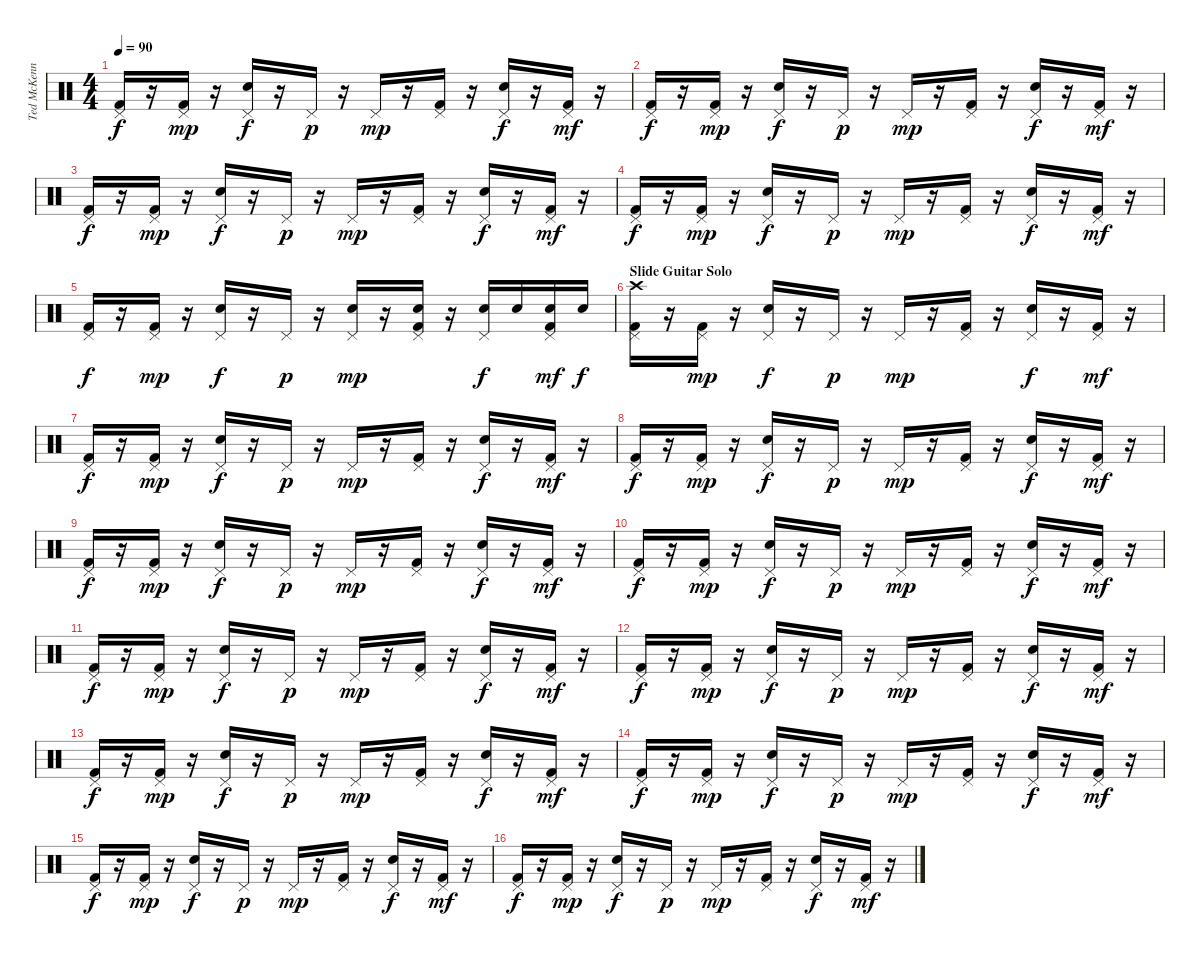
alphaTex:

\track ("Ted McKenna" "Ted McKenn") {instrument percussion}
\staff {score}
\articulation defaults
\ts (4 4)
\tempo 90
\clef neutral
\ks c
("Pedal Hi-Hat (hit)" "Kick (hit) 2").16{dy f} r.16 ("Pedal Hi-Hat (hit)" "Kick (hit) 2").16{dy mp} r.16 ("Pedal Hi-Hat (hit)" "Snare (hit) 2").16{dy f} r.16 "Pedal Hi-Hat (hit)".16{dy p} r.16 "Pedal Hi-Hat (hit)".16{dy mp} r.16 ("Pedal Hi-Hat (hit)" "Kick (hit) 2").16 r.16 ("Pedal Hi-Hat (hit)" "Snare (hit) 2").16{dy f} r.16 ("Pedal Hi-Hat (hit)" "Kick (hit) 2").16{dy mf} r.16 |
("Pedal Hi-Hat (hit)" "Kick (hit) 2").16{dy f} r.16 ("Pedal Hi-Hat (hit)" "Kick (hit) 2").16{dy mp} r.16 ("Pedal Hi-Hat (hit)" "Snare (hit) 2").16{dy f} r.16 "Pedal Hi-Hat (hit)".16{dy p} r.16 "Pedal Hi-Hat (hit)".16{dy mp} r.16 ("Pedal Hi-Hat (hit)" "Kick (hit) 2").16 r.16 ("Pedal Hi-Hat (hit)" "Snare (hit) 2").16{dy f} r.16 ("Pedal Hi-Hat (hit)" "Kick (hit) 2").16{dy mf} r.16 |
("Pedal Hi-Hat (hit)" "Kick (hit) 2").16{dy f} r.16 ("Pedal Hi-Hat (hit)" "Kick (hit) 2").16{dy mp} r.16 ("Pedal Hi-Hat (hit)" "Snare (hit) 2").16{dy f} r.16 "Pedal Hi-Hat (hit)".16{dy p} r.16 "Pedal Hi-Hat (hit)".16{dy mp} r.16 ("Pedal Hi-Hat (hit)" "Kick (hit) 2").16 r.16 ("Pedal Hi-Hat (hit)" "Snare (hit) 2").16{dy f} r.16 ("Pedal Hi-Hat (hit)" "Kick (hit) 2").16{dy mf} r.16 |
("Pedal Hi-Hat (hit)" "Kick (hit) 2").16{dy f} r.16 ("Pedal Hi-Hat (hit)" "Kick (hit) 2").16{dy mp} r.16 ("Pedal Hi-Hat (hit)" "Snare (hit) 2").16{dy f} r.16 "Pedal Hi-Hat (hit)".16{dy p} r.16 "Pedal Hi-Hat (hit)".16{dy mp} r.16 ("Pedal Hi-Hat (hit)" "Kick (hit) 2").16 r.16 ("Pedal Hi-Hat (hit)" "Snare (hit) 2").16{dy f} r.16 ("Pedal Hi-Hat (hit)" "Kick (hit) 2").16{dy mf} r.16 |
("Pedal Hi-Hat (hit)" "Kick (hit) 2").16{dy f} r.16 ("Pedal Hi-Hat (hit)" "Kick (hit) 2").16{dy mp} r.16 ("Pedal Hi-Hat (hit)" "Snare (hit) 2").16{dy f} r.16 "Pedal Hi-Hat (hit)".16{dy p} r.16 ("Pedal Hi-Hat (hit)" "Electric Snare (hit)").16{dy mp} r.16 ("Pedal Hi-Hat (hit)" "Electric Snare (hit)" "Kick (hit) 2").16 r.16 ("Pedal Hi-Hat (hit)" "Electric Snare (hit)").16{dy f} "Electric Snare (hit)".16 ("Pedal Hi-Hat (hit)" "Electric Snare (hit)" "Kick (hit) 2").16{dy mf} "Electric Snare (hit)".16{dy f} |
\section ("" "Slide Guitar Solo")
("Crash high (hit)" "Pedal Hi-Hat (hit)" "Kick (hit) 2").16 r.16 ("Pedal Hi-Hat (hit)" "Kick (hit) 2").16{dy mp} r.16 ("Pedal Hi-Hat (hit)" "Snare (hit) 2").16{dy f} r.16 "Pedal Hi-Hat (hit)".16{dy p} r.16 "Pedal Hi-Hat (hit)".16{dy mp} r.16 ("Pedal Hi-Hat (hit)" "Kick (hit) 2").16 r.16 ("Pedal Hi-Hat (hit)" "Snare (hit) 2").16{dy f} r.16 ("Pedal Hi-Hat (hit)" "Kick (hit) 2").16{dy mf} r.16 |
("Pedal Hi-Hat (hit)" "Kick (hit) 2").16{dy f} r.16 ("Pedal Hi-Hat (hit)" "Kick (hit) 2").16{dy mp} r.16 ("Pedal Hi-Hat (hit)" "Snare (hit) 2").16{dy f} r.16 "Pedal Hi-Hat (hit)".16{dy p} r.16 "Pedal Hi-Hat (hit)".16{dy mp} r.16 ("Pedal Hi-Hat (hit)" "Kick (hit) 2").16 r.16 ("Pedal Hi-Hat (hit)" "Snare (hit) 2").16{dy f} r.16 ("Pedal Hi-Hat (hit)" "Kick (hit) 2").16{dy mf} r.16 |
("Pedal Hi-Hat (hit)" "Kick (hit) 2").16{dy f} r.16 ("Pedal Hi-Hat (hit)" "Kick (hit) 2").16{dy mp} r.16 ("Pedal Hi-Hat (hit)" "Snare (hit) 2").16{dy f} r.16 "Pedal Hi-Hat (hit)".16{dy p} r.16 "Pedal Hi-Hat (hit)".16{dy mp} r.16 ("Pedal Hi-Hat (hit)" "Kick (hit) 2").16 r.16 ("Pedal Hi-Hat (hit)" "Snare (hit) 2").16{dy f} r.16 ("Pedal Hi-Hat (hit)" "Kick (hit) 2").16{dy mf} r.16 |
("Pedal Hi-Hat (hit)" "Kick (hit) 2").16{dy f} r.16 ("Pedal Hi-Hat (hit)" "Kick (hit) 2").16{dy mp} r.16 ("Pedal Hi-Hat (hit)" "Snare (hit) 2").16{dy f} r.16 "Pedal Hi-Hat (hit)".16{dy p} r.16 "Pedal Hi-Hat (hit)".16{dy mp} r.16 ("Pedal Hi-Hat (hit)" "Kick (hit) 2").16 r.16 ("Pedal Hi-Hat (hit)" "Snare (hit) 2").16{dy f} r.16 ("Pedal Hi-Hat (hit)" "Kick (hit) 2").16{dy mf} r.16 |
("Pedal Hi-Hat (hit)" "Kick (hit) 2").16{dy f} r.16 ("Pedal Hi-Hat (hit)" "Kick (hit) 2").16{dy mp} r.16 ("Pedal Hi-Hat (hit)" "Snare (hit) 2").16{dy f} r.16 "Pedal Hi-Hat (hit)".16{dy p} r.16 "Pedal Hi-Hat (hit)".16{dy mp} r.16 ("Pedal Hi-Hat (hit)" "Kick (hit) 2").16 r.16 ("Pedal Hi-Hat (hit)" "Snare (hit) 2").16{dy f} r.16 ("Pedal Hi-Hat (hit)" "Kick (hit) 2").16{dy mf} r.16 |
("Pedal Hi-Hat (hit)" "Kick (hit) 2").16{dy f} r.16 ("Pedal Hi-Hat (hit)" "Kick (hit) 2").16{dy mp} r.16 ("Pedal Hi-Hat (hit)" "Snare (hit) 2").16{dy f} r.16 "Pedal Hi-Hat (hit)".16{dy p} r.16 "Pedal Hi-Hat (hit)".16{dy mp} r.16 ("Pedal Hi-Hat (hit)" "Kick (hit) 2").16 r.16 ("Pedal Hi-Hat (hit)" "Snare (hit) 2").16{dy f} r.16 ("Pedal Hi-Hat (hit)" "Kick (hit) 2").16{dy mf} r.16 |
("Pedal Hi-Hat (hit)" "Kick (hit) 2").16{dy f} r.16 ("Pedal Hi-Hat (hit)" "Kick (hit) 2").16{dy mp} r.16 ("Pedal Hi-Hat (hit)" "Snare (hit) 2").16{dy f} r.16 "Pedal Hi-Hat (hit)".16{dy p} r.16 "Pedal Hi-Hat (hit)".16{dy mp} r.16 ("Pedal Hi-Hat (hit)" "Kick (hit) 2").16 r.16 ("Pedal Hi-Hat (hit)" "Snare (hit) 2").16{dy f} r.16 ("Pedal Hi-Hat (hit)" "Kick (hit) 2").16{dy mf} r.16 |
("Pedal Hi-Hat (hit)" "Kick (hit) 2").16{dy f} r.16 ("Pedal Hi-Hat (hit)" "Kick (hit) 2").16{dy mp} r.16 ("Pedal Hi-Hat (hit)" "Snare (hit) 2").16{dy f} r.16 "Pedal Hi-Hat (hit)".16{dy p} r.16 "Pedal Hi-Hat (hit)".16{dy mp} r.16 ("Pedal Hi-Hat (hit)" "Kick (hit) 2").16 r.16 ("Pedal Hi-Hat (hit)" "Snare (hit) 2").16{dy f} r.16 ("Pedal Hi-Hat (hit)" "Kick (hit) 2").16{dy mf} r.16 |
("Pedal Hi-Hat (hit)" "Kick (hit) 2").16{dy f} r.16 ("Pedal Hi-Hat (hit)" "Kick (hit) 2").16{dy mp} r.16 ("Pedal Hi-Hat (hit)" "Snare (hit) 2").16{dy f} r.16 "Pedal Hi-Hat (hit)".16{dy p} r.16 "Pedal Hi-Hat (hit)".16{dy mp} r.16 ("Pedal Hi-Hat (hit)" "Kick (hit) 2").16 r.16 ("Pedal Hi-Hat (hit)" "Snare (hit) 2").16{dy f} r.16 ("Pedal Hi-Hat (hit)" "Kick (hit) 2").16{dy mf} r.16 |
("Pedal Hi-Hat (hit)" "Kick (hit) 2").16{dy f} r.16 ("Pedal Hi-Hat (hit)" "Kick (hit) 2").16{dy mp} r.16 ("Pedal Hi-Hat (hit)" "Snare (hit) 2").16{dy f} r.16 "Pedal Hi-Hat (hit)".16{dy p} r.16 "Pedal Hi-Hat (hit)".16{dy mp} r.16 ("Pedal Hi-Hat (hit)" "Kick (hit) 2").16 r.16 ("Pedal Hi-Hat (hit)" "Snare (hit) 2").16{dy f} r.16 ("Pedal Hi-Hat (hit)" "Kick (hit) 2").16{dy mf} r.16 |
("Pedal Hi-Hat (hit)" "Kick (hit) 2").16{dy f} r.16 ("Pedal Hi-Hat (hit)" "Kick (hit) 2").16{dy mp} r.16 ("Pedal Hi-Hat (hit)" "Snare (hit) 2").16{dy f} r.16 "Pedal Hi-Hat (hit)".16{dy p} r.16 "Pedal Hi-Hat (hit)".16{dy mp} r.16 ("Pedal Hi-Hat (hit)" "Kick (hit) 2").16 r.16 ("Pedal Hi-Hat (hit)" "Snare (hit) 2").16{dy f} r.16 ("Pedal Hi-Hat (hit)" "Kick (hit) 2").16{dy mf} r.16
